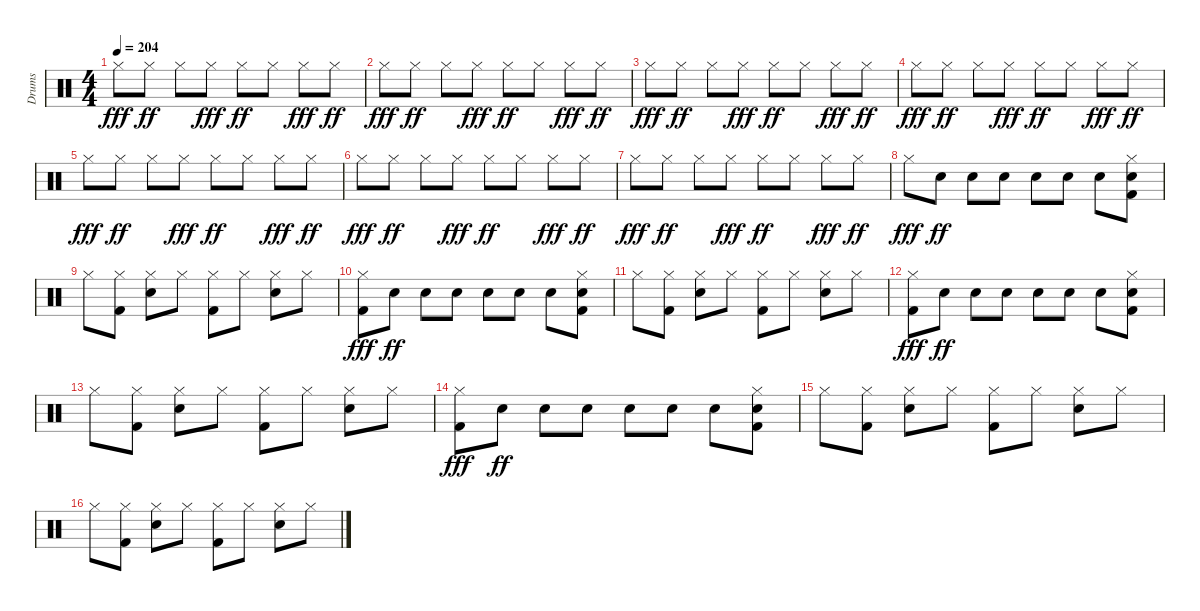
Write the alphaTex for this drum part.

\track ("Drums" "Drums") {instrument percussion}
\staff {score}
\articulation defaults
\ts (4 4)
\tempo 204
\clef neutral
\ks c "Hi-Hat (closed)".8{dy fff} "Hi-Hat (closed)".8{dy ff} "Hi-Hat (closed)".8 "Hi-Hat (closed)".8{dy fff} "Hi-Hat (closed)".8{dy ff} "Hi-Hat (closed)".8 "Hi-Hat (closed)".8{dy fff} "Hi-Hat (closed)".8{dy ff}
|
"Hi-Hat (closed)".8{dy fff} "Hi-Hat (closed)".8{dy ff} "Hi-Hat (closed)".8 "Hi-Hat (closed)".8{dy fff} "Hi-Hat (closed)".8{dy ff} "Hi-Hat (closed)".8 "Hi-Hat (closed)".8{dy fff} "Hi-Hat (closed)".8{dy ff} |
"Hi-Hat (closed)".8{dy fff} "Hi-Hat (closed)".8{dy ff} "Hi-Hat (closed)".8 "Hi-Hat (closed)".8{dy fff} "Hi-Hat (closed)".8{dy ff} "Hi-Hat (closed)".8 "Hi-Hat (closed)".8{dy fff} "Hi-Hat (closed)".8{dy ff} |
"Hi-Hat (closed)".8{dy fff} "Hi-Hat (closed)".8{dy ff} "Hi-Hat (closed)".8 "Hi-Hat (closed)".8{dy fff} "Hi-Hat (closed)".8{dy ff} "Hi-Hat (closed)".8 "Hi-Hat (closed)".8{dy fff} "Hi-Hat (closed)".8{dy ff} |
"Hi-Hat (closed)".8{dy fff} "Hi-Hat (closed)".8{dy ff} "Hi-Hat (closed)".8 "Hi-Hat (closed)".8{dy fff} "Hi-Hat (closed)".8{dy ff} "Hi-Hat (closed)".8 "Hi-Hat (closed)".8{dy fff} "Hi-Hat (closed)".8{dy ff} |
"Hi-Hat (closed)".8{dy fff} "Hi-Hat (closed)".8{dy ff} "Hi-Hat (closed)".8 "Hi-Hat (closed)".8{dy fff} "Hi-Hat (closed)".8{dy ff} "Hi-Hat (closed)".8 "Hi-Hat (closed)".8{dy fff} "Hi-Hat (closed)".8{dy ff} |
"Hi-Hat (closed)".8{dy fff} "Hi-Hat (closed)".8{dy ff} "Hi-Hat (closed)".8 "Hi-Hat (closed)".8{dy fff} "Hi-Hat (closed)".8{dy ff} "Hi-Hat (closed)".8 "Hi-Hat (closed)".8{dy fff} "Hi-Hat (closed)".8{dy ff} |
"Hi-Hat (closed)".8{dy fff} "Snare (hit) 2".8{dy ff} "Snare (hit) 2".8 "Snare (hit) 2".8 "Snare (hit) 2".8 "Snare (hit) 2".8 "Snare (hit) 2".8 ("Kick (hit) 2" "Snare (hit) 2" "Hi-Hat (closed)").8 |
"Hi-Hat (closed)".8 ("Kick (hit) 2" "Hi-Hat (closed)").8 ("Snare (hit) 2" "Hi-Hat (closed)").8 "Hi-Hat (closed)".8 ("Kick (hit) 2" "Hi-Hat (closed)").8 "Hi-Hat (closed)".8 ("Snare (hit) 2" "Hi-Hat (closed)").8 "Hi-Hat (closed)".8 |
("Kick (hit) 2" "Hi-Hat (closed)").8{dy fff} "Snare (hit) 2".8{dy ff} "Snare (hit) 2".8 "Snare (hit) 2".8 "Snare (hit) 2".8 "Snare (hit) 2".8 "Snare (hit) 2".8 ("Kick (hit) 2" "Snare (hit) 2" "Hi-Hat (closed)").8 |
"Hi-Hat (closed)".8 ("Kick (hit) 2" "Hi-Hat (closed)").8 ("Snare (hit) 2" "Hi-Hat (closed)").8 "Hi-Hat (closed)".8 ("Kick (hit) 2" "Hi-Hat (closed)").8 "Hi-Hat (closed)".8 ("Snare (hit) 2" "Hi-Hat (closed)").8 "Hi-Hat (closed)".8 |
("Kick (hit) 2" "Hi-Hat (closed)").8{dy fff} "Snare (hit) 2".8{dy ff} "Snare (hit) 2".8 "Snare (hit) 2".8 "Snare (hit) 2".8 "Snare (hit) 2".8 "Snare (hit) 2".8 ("Kick (hit) 2" "Snare (hit) 2" "Hi-Hat (closed)").8 |
"Hi-Hat (closed)".8 ("Kick (hit) 2" "Hi-Hat (closed)").8 ("Snare (hit) 2" "Hi-Hat (closed)").8 "Hi-Hat (closed)".8 ("Kick (hit) 2" "Hi-Hat (closed)").8 "Hi-Hat (closed)".8 ("Snare (hit) 2" "Hi-Hat (closed)").8 "Hi-Hat (closed)".8 |
("Kick (hit) 2" "Hi-Hat (closed)").8{dy fff} "Snare (hit) 2".8{dy ff} "Snare (hit) 2".8 "Snare (hit) 2".8 "Snare (hit) 2".8 "Snare (hit) 2".8 "Snare (hit) 2".8 ("Kick (hit) 2" "Snare (hit) 2" "Hi-Hat (closed)").8 |
"Hi-Hat (closed)".8 ("Kick (hit) 2" "Hi-Hat (closed)").8 ("Snare (hit) 2" "Hi-Hat (closed)").8 "Hi-Hat (closed)".8 ("Kick (hit) 2" "Hi-Hat (closed)").8 "Hi-Hat (closed)".8 ("Snare (hit) 2" "Hi-Hat (closed)").8 "Hi-Hat (closed)".8 |
"Hi-Hat (closed)".8 ("Kick (hit) 2" "Hi-Hat (closed)").8 ("Snare (hit) 2" "Hi-Hat (closed)").8 "Hi-Hat (closed)".8 ("Kick (hit) 2" "Hi-Hat (closed)").8 "Hi-Hat (closed)".8 ("Snare (hit) 2" "Hi-Hat (closed)").8 "Hi-Hat (closed)".8
